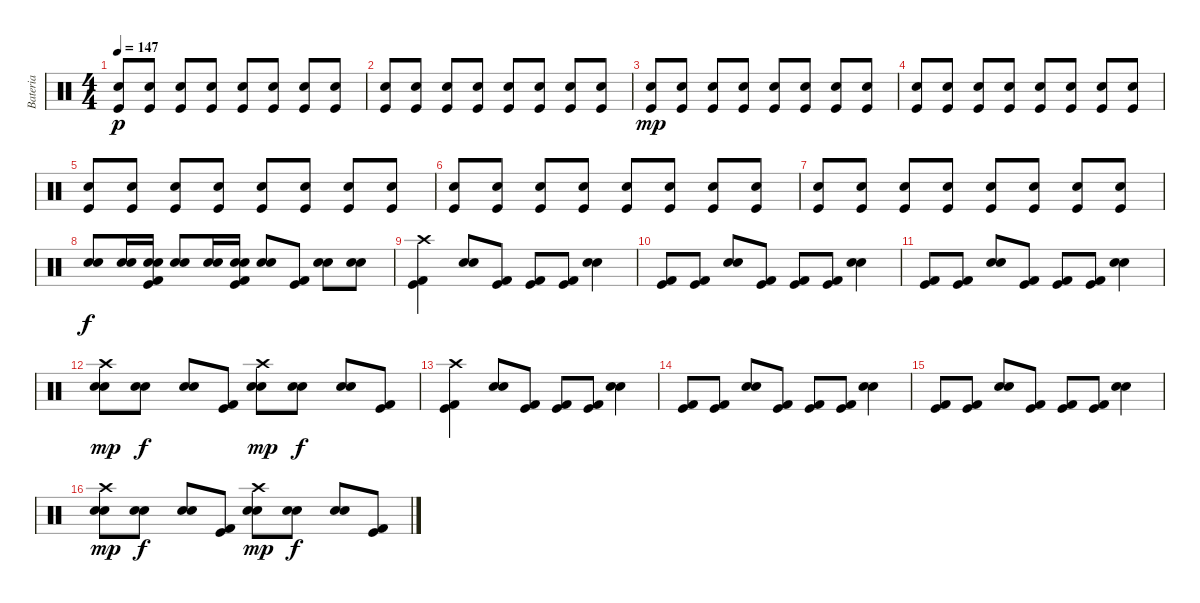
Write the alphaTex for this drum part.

\track ("Bateria" "Bateria") {instrument percussion}
\staff {score}
\articulation defaults
\ts (4 4)
\tempo 147
\clef neutral
\ks c
("Snare (hit) 2" "Kick (hit)").8{dy p} ("Snare (hit) 2" "Kick (hit)").8 ("Snare (hit) 2" "Kick (hit)").8 ("Snare (hit) 2" "Kick (hit)").8 ("Snare (hit) 2" "Kick (hit)").8 ("Snare (hit) 2" "Kick (hit)").8 ("Snare (hit) 2" "Kick (hit)").8 ("Snare (hit) 2" "Kick (hit)").8 |
("Snare (hit) 2" "Kick (hit)").8 ("Snare (hit) 2" "Kick (hit)").8 ("Snare (hit) 2" "Kick (hit)").8 ("Snare (hit) 2" "Kick (hit)").8 ("Snare (hit) 2" "Kick (hit)").8 ("Snare (hit) 2" "Kick (hit)").8 ("Snare (hit) 2" "Kick (hit)").8 ("Snare (hit) 2" "Kick (hit)").8 |
("Snare (hit) 2" "Kick (hit)").8{dy mp} ("Snare (hit) 2" "Kick (hit)").8 ("Snare (hit) 2" "Kick (hit)").8 ("Snare (hit) 2" "Kick (hit)").8 ("Snare (hit) 2" "Kick (hit)").8 ("Snare (hit) 2" "Kick (hit)").8 ("Snare (hit) 2" "Kick (hit)").8 ("Snare (hit) 2" "Kick (hit)").8 |
("Snare (hit) 2" "Kick (hit)").8 ("Snare (hit) 2" "Kick (hit)").8 ("Snare (hit) 2" "Kick (hit)").8 ("Snare (hit) 2" "Kick (hit)").8 ("Snare (hit) 2" "Kick (hit)").8 ("Snare (hit) 2" "Kick (hit)").8 ("Snare (hit) 2" "Kick (hit)").8 ("Snare (hit) 2" "Kick (hit)").8 |
("Snare (hit) 2" "Kick (hit)").8 ("Snare (hit) 2" "Kick (hit)").8 ("Snare (hit) 2" "Kick (hit)").8 ("Snare (hit) 2" "Kick (hit)").8 ("Snare (hit) 2" "Kick (hit)").8 ("Snare (hit) 2" "Kick (hit)").8 ("Snare (hit) 2" "Kick (hit)").8 ("Snare (hit) 2" "Kick (hit)").8 |
("Snare (hit) 2" "Kick (hit)").8 ("Snare (hit) 2" "Kick (hit)").8 ("Snare (hit) 2" "Kick (hit)").8 ("Snare (hit) 2" "Kick (hit)").8 ("Snare (hit) 2" "Kick (hit)").8 ("Snare (hit) 2" "Kick (hit)").8 ("Snare (hit) 2" "Kick (hit)").8 ("Snare (hit) 2" "Kick (hit)").8 |
("Snare (hit) 2" "Kick (hit)").8 ("Snare (hit) 2" "Kick (hit)").8 ("Snare (hit) 2" "Kick (hit)").8 ("Snare (hit) 2" "Kick (hit)").8 ("Snare (hit) 2" "Kick (hit)").8 ("Snare (hit) 2" "Kick (hit)").8 ("Snare (hit) 2" "Kick (hit)").8 ("Snare (hit) 2" "Kick (hit)").8 |
("Snare (hit) 2" "Electric Snare (hit)").8{dy f} ("Snare (hit) 2" "Electric Snare (hit)").16 ("Snare (hit) 2" "Electric Snare (hit)" "Kick (hit)" "Kick (hit) 2").16 ("Snare (hit) 2" "Electric Snare (hit)").8 ("Snare (hit) 2" "Electric Snare (hit)").16 ("Snare (hit) 2" "Electric Snare (hit)" "Kick (hit)" "Kick (hit) 2").16 ("Snare (hit) 2" "Electric Snare (hit)").8 ("Kick (hit)" "Kick (hit) 2").8 ("Snare (hit) 2" "Electric Snare (hit)").8 ("Snare (hit) 2" "Electric Snare (hit)").8 |
("Crash high (hit)" "Kick (hit)" "Kick (hit) 2").4 ("Snare (hit) 2" "Electric Snare (hit)").8 ("Kick (hit)" "Kick (hit) 2").8 ("Kick (hit)" "Kick (hit) 2").8 ("Kick (hit)" "Kick (hit) 2").8 ("Snare (hit) 2" "Electric Snare (hit)").4 |
("Kick (hit)" "Kick (hit) 2").8 ("Kick (hit)" "Kick (hit) 2").8 ("Snare (hit) 2" "Electric Snare (hit)").8 ("Kick (hit)" "Kick (hit) 2").8 ("Kick (hit)" "Kick (hit) 2").8 ("Kick (hit)" "Kick (hit) 2").8 ("Snare (hit) 2" "Electric Snare (hit)").4 |
("Kick (hit)" "Kick (hit) 2").8 ("Kick (hit)" "Kick (hit) 2").8 ("Snare (hit) 2" "Electric Snare (hit)").8 ("Kick (hit)" "Kick (hit) 2").8 ("Kick (hit)" "Kick (hit) 2").8 ("Kick (hit)" "Kick (hit) 2").8 ("Snare (hit) 2" "Electric Snare (hit)").4 |
("Crash high (hit)" "Snare (hit) 2" "Electric Snare (hit)").8{dy mp} ("Snare (hit) 2" "Electric Snare (hit)").8{dy f} ("Snare (hit) 2" "Electric Snare (hit)").8 ("Kick (hit)" "Kick (hit) 2").8 ("Crash high (hit)" "Snare (hit) 2" "Electric Snare (hit)").8{dy mp} ("Snare (hit) 2" "Electric Snare (hit)").8{dy f} ("Snare (hit) 2" "Electric Snare (hit)").8 ("Kick (hit)" "Kick (hit) 2").8 |
("Crash high (hit)" "Kick (hit)" "Kick (hit) 2").4 ("Snare (hit) 2" "Electric Snare (hit)").8 ("Kick (hit)" "Kick (hit) 2").8 ("Kick (hit)" "Kick (hit) 2").8 ("Kick (hit)" "Kick (hit) 2").8 ("Snare (hit) 2" "Electric Snare (hit)").4 |
("Kick (hit)" "Kick (hit) 2").8 ("Kick (hit)" "Kick (hit) 2").8 ("Snare (hit) 2" "Electric Snare (hit)").8 ("Kick (hit)" "Kick (hit) 2").8 ("Kick (hit)" "Kick (hit) 2").8 ("Kick (hit)" "Kick (hit) 2").8 ("Snare (hit) 2" "Electric Snare (hit)").4 |
("Kick (hit)" "Kick (hit) 2").8 ("Kick (hit)" "Kick (hit) 2").8 ("Snare (hit) 2" "Electric Snare (hit)").8 ("Kick (hit)" "Kick (hit) 2").8 ("Kick (hit)" "Kick (hit) 2").8 ("Kick (hit)" "Kick (hit) 2").8 ("Snare (hit) 2" "Electric Snare (hit)").4 |
("Crash high (hit)" "Snare (hit) 2" "Electric Snare (hit)").8{dy mp} ("Snare (hit) 2" "Electric Snare (hit)").8{dy f} ("Snare (hit) 2" "Electric Snare (hit)").8 ("Kick (hit)" "Kick (hit) 2").8 ("Crash high (hit)" "Snare (hit) 2" "Electric Snare (hit)").8{dy mp} ("Snare (hit) 2" "Electric Snare (hit)").8{dy f} ("Snare (hit) 2" "Electric Snare (hit)").8 ("Kick (hit)" "Kick (hit) 2").8
